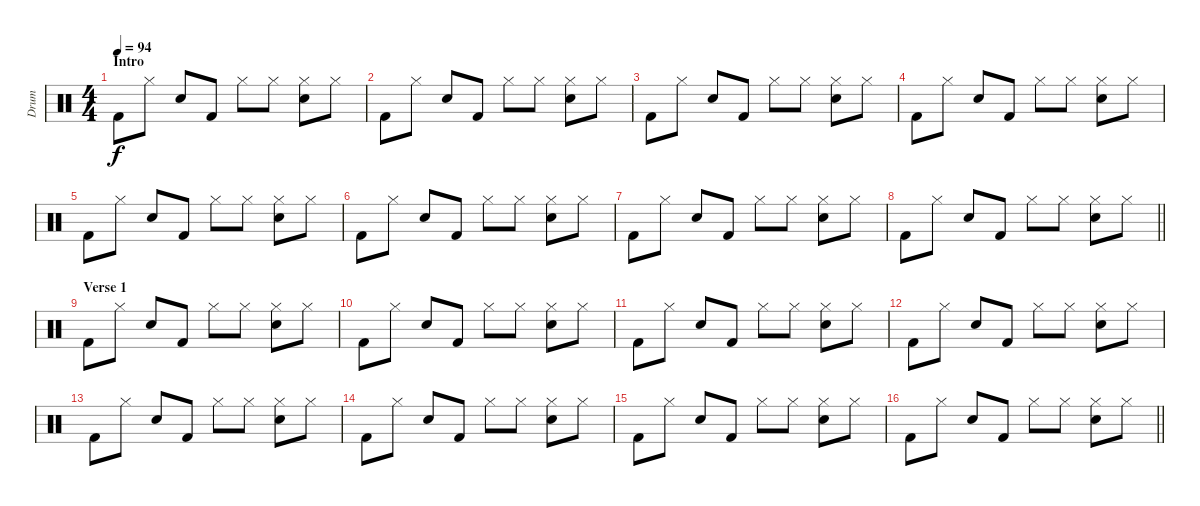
\track ("Drum" "Drum") {instrument percussion}
\staff {score}
\articulation defaults
\ts (4 4)
\section ("" "Intro")
\tempo 94
\clef neutral
\ks c "Kick (hit) 2".8{dy f} "Hi-Hat (closed)".8 "Electric Snare (hit)".8 "Kick (hit) 2".8 "Hi-Hat (closed)".8 "Hi-Hat (closed)".8
("Hi-Hat (closed)" "Electric Snare (hit)").8 "Hi-Hat (closed)".8 |
"Kick (hit) 2".8 "Hi-Hat (closed)".8 "Electric Snare (hit)".8 "Kick (hit) 2".8 "Hi-Hat (closed)".8 "Hi-Hat (closed)".8 ("Hi-Hat (closed)" "Electric Snare (hit)").8 "Hi-Hat (closed)".8 |
"Kick (hit) 2".8 "Hi-Hat (closed)".8 "Electric Snare (hit)".8 "Kick (hit) 2".8 "Hi-Hat (closed)".8 "Hi-Hat (closed)".8 ("Hi-Hat (closed)" "Electric Snare (hit)").8 "Hi-Hat (closed)".8 |
"Kick (hit) 2".8 "Hi-Hat (closed)".8 "Electric Snare (hit)".8 "Kick (hit) 2".8 "Hi-Hat (closed)".8 "Hi-Hat (closed)".8 ("Hi-Hat (closed)" "Electric Snare (hit)").8 "Hi-Hat (closed)".8 |
"Kick (hit) 2".8 "Hi-Hat (closed)".8 "Electric Snare (hit)".8 "Kick (hit) 2".8 "Hi-Hat (closed)".8 "Hi-Hat (closed)".8 ("Hi-Hat (closed)" "Electric Snare (hit)").8 "Hi-Hat (closed)".8 |
"Kick (hit) 2".8 "Hi-Hat (closed)".8 "Electric Snare (hit)".8 "Kick (hit) 2".8 "Hi-Hat (closed)".8 "Hi-Hat (closed)".8 ("Hi-Hat (closed)" "Electric Snare (hit)").8 "Hi-Hat (closed)".8 |
"Kick (hit) 2".8 "Hi-Hat (closed)".8 "Electric Snare (hit)".8 "Kick (hit) 2".8 "Hi-Hat (closed)".8 "Hi-Hat (closed)".8 ("Hi-Hat (closed)" "Electric Snare (hit)").8 "Hi-Hat (closed)".8 |
\barLineRight lightlight "Kick (hit) 2".8 "Hi-Hat (closed)".8 "Electric Snare (hit)".8 "Kick (hit) 2".8 "Hi-Hat (closed)".8 "Hi-Hat (closed)".8
("Hi-Hat (closed)" "Electric Snare (hit)").8 "Hi-Hat (closed)".8 |
\section ("" "Verse 1")
"Kick (hit) 2".8 "Hi-Hat (closed)".8 "Electric Snare (hit)".8 "Kick (hit) 2".8 "Hi-Hat (closed)".8 "Hi-Hat (closed)".8 ("Hi-Hat (closed)" "Electric Snare (hit)").8 "Hi-Hat (closed)".8 |
"Kick (hit) 2".8 "Hi-Hat (closed)".8 "Electric Snare (hit)".8 "Kick (hit) 2".8 "Hi-Hat (closed)".8 "Hi-Hat (closed)".8 ("Hi-Hat (closed)" "Electric Snare (hit)").8 "Hi-Hat (closed)".8 |
"Kick (hit) 2".8 "Hi-Hat (closed)".8 "Electric Snare (hit)".8 "Kick (hit) 2".8 "Hi-Hat (closed)".8 "Hi-Hat (closed)".8 ("Hi-Hat (closed)" "Electric Snare (hit)").8 "Hi-Hat (closed)".8 |
"Kick (hit) 2".8 "Hi-Hat (closed)".8 "Electric Snare (hit)".8 "Kick (hit) 2".8 "Hi-Hat (closed)".8 "Hi-Hat (closed)".8 ("Hi-Hat (closed)" "Electric Snare (hit)").8 "Hi-Hat (closed)".8 |
"Kick (hit) 2".8 "Hi-Hat (closed)".8 "Electric Snare (hit)".8 "Kick (hit) 2".8 "Hi-Hat (closed)".8 "Hi-Hat (closed)".8 ("Hi-Hat (closed)" "Electric Snare (hit)").8 "Hi-Hat (closed)".8 |
"Kick (hit) 2".8 "Hi-Hat (closed)".8 "Electric Snare (hit)".8 "Kick (hit) 2".8 "Hi-Hat (closed)".8 "Hi-Hat (closed)".8 ("Hi-Hat (closed)" "Electric Snare (hit)").8 "Hi-Hat (closed)".8 |
"Kick (hit) 2".8 "Hi-Hat (closed)".8 "Electric Snare (hit)".8 "Kick (hit) 2".8 "Hi-Hat (closed)".8 "Hi-Hat (closed)".8 ("Hi-Hat (closed)" "Electric Snare (hit)").8 "Hi-Hat (closed)".8 |
\barLineRight lightlight "Kick (hit) 2".8 "Hi-Hat (closed)".8 "Electric Snare (hit)".8 "Kick (hit) 2".8 "Hi-Hat (closed)".8 "Hi-Hat (closed)".8
("Hi-Hat (closed)" "Electric Snare (hit)").8 "Hi-Hat (closed)".8
